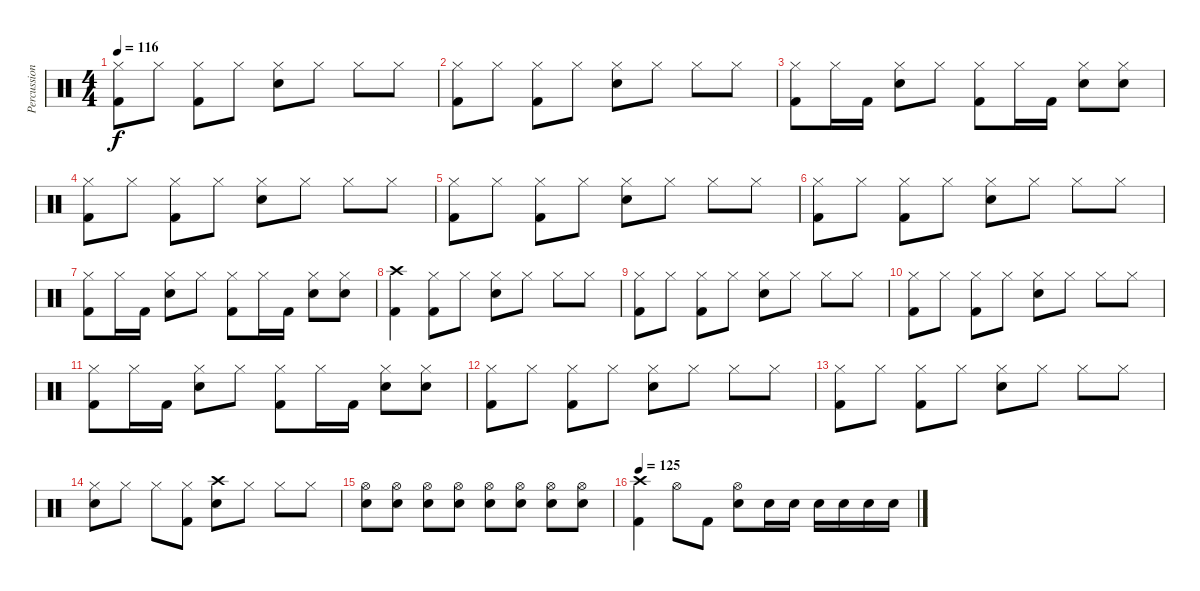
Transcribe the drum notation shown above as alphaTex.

\track ("Percussion" "Percussion") {instrument percussion}
\staff {score}
\articulation defaults
\ts (4 4)
\tempo 116
\clef neutral
\ks c
("Kick (hit) 2" "Hi-Hat (closed)").8{dy f} "Hi-Hat (closed)".8 ("Kick (hit) 2" "Hi-Hat (closed)").8 "Hi-Hat (closed)".8 ("Electric Snare (hit)" "Hi-Hat (closed)").8 "Hi-Hat (closed)".8 "Hi-Hat (closed)".8 "Hi-Hat (closed)".8 |
("Kick (hit) 2" "Hi-Hat (closed)").8 "Hi-Hat (closed)".8 ("Kick (hit) 2" "Hi-Hat (closed)").8 "Hi-Hat (closed)".8 ("Electric Snare (hit)" "Hi-Hat (closed)").8 "Hi-Hat (closed)".8 "Hi-Hat (closed)".8 "Hi-Hat (closed)".8 |
("Kick (hit) 2" "Hi-Hat (closed)").8 "Hi-Hat (closed)".16 "Kick (hit) 2".16 ("Electric Snare (hit)" "Hi-Hat (closed)").8 "Hi-Hat (closed)".8 ("Kick (hit) 2" "Hi-Hat (closed)").8 "Hi-Hat (closed)".16 "Kick (hit) 2".16 ("Electric Snare (hit)" "Hi-Hat (closed)").8 ("Electric Snare (hit)" "Hi-Hat (closed)").8 |
("Kick (hit) 2" "Hi-Hat (closed)").8 "Hi-Hat (closed)".8 ("Kick (hit) 2" "Hi-Hat (closed)").8 "Hi-Hat (closed)".8 ("Electric Snare (hit)" "Hi-Hat (closed)").8 "Hi-Hat (closed)".8 "Hi-Hat (closed)".8 "Hi-Hat (closed)".8 |
("Kick (hit) 2" "Hi-Hat (closed)").8 "Hi-Hat (closed)".8 ("Kick (hit) 2" "Hi-Hat (closed)").8 "Hi-Hat (closed)".8 ("Electric Snare (hit)" "Hi-Hat (closed)").8 "Hi-Hat (closed)".8 "Hi-Hat (closed)".8 "Hi-Hat (closed)".8 |
("Kick (hit) 2" "Hi-Hat (closed)").8 "Hi-Hat (closed)".8 ("Kick (hit) 2" "Hi-Hat (closed)").8 "Hi-Hat (closed)".8 ("Electric Snare (hit)" "Hi-Hat (closed)").8 "Hi-Hat (closed)".8 "Hi-Hat (closed)".8 "Hi-Hat (closed)".8 |
("Kick (hit) 2" "Hi-Hat (closed)").8 "Hi-Hat (closed)".16 "Kick (hit) 2".16 ("Electric Snare (hit)" "Hi-Hat (closed)").8 "Hi-Hat (closed)".8 ("Kick (hit) 2" "Hi-Hat (closed)").8 "Hi-Hat (closed)".16 "Kick (hit) 2".16 ("Electric Snare (hit)" "Hi-Hat (closed)").8 ("Electric Snare (hit)" "Hi-Hat (closed)").8 |
("Kick (hit) 2" "Crash high (hit)").4 ("Kick (hit) 2" "Hi-Hat (closed)").8 "Hi-Hat (closed)".8 ("Electric Snare (hit)" "Hi-Hat (closed)").8 "Hi-Hat (closed)".8 "Hi-Hat (closed)".8 "Hi-Hat (closed)".8 |
("Kick (hit) 2" "Hi-Hat (closed)").8 "Hi-Hat (closed)".8 ("Kick (hit) 2" "Hi-Hat (closed)").8 "Hi-Hat (closed)".8 ("Electric Snare (hit)" "Hi-Hat (closed)").8 "Hi-Hat (closed)".8 "Hi-Hat (closed)".8 "Hi-Hat (closed)".8 |
("Kick (hit) 2" "Hi-Hat (closed)").8 "Hi-Hat (closed)".8 ("Kick (hit) 2" "Hi-Hat (closed)").8 "Hi-Hat (closed)".8 ("Electric Snare (hit)" "Hi-Hat (closed)").8 "Hi-Hat (closed)".8 "Hi-Hat (closed)".8 "Hi-Hat (closed)".8 |
("Kick (hit) 2" "Hi-Hat (closed)").8 "Hi-Hat (closed)".16 "Kick (hit) 2".16 ("Electric Snare (hit)" "Hi-Hat (closed)").8 "Hi-Hat (closed)".8 ("Kick (hit) 2" "Hi-Hat (closed)").8 "Hi-Hat (closed)".16 "Kick (hit) 2".16 ("Electric Snare (hit)" "Hi-Hat (closed)").8 ("Electric Snare (hit)" "Hi-Hat (closed)").8 |
("Kick (hit) 2" "Hi-Hat (closed)").8 "Hi-Hat (closed)".8 ("Kick (hit) 2" "Hi-Hat (closed)").8 "Hi-Hat (closed)".8 ("Electric Snare (hit)" "Hi-Hat (closed)").8 "Hi-Hat (closed)".8 "Hi-Hat (closed)".8 "Hi-Hat (closed)".8 |
("Kick (hit) 2" "Hi-Hat (closed)").8 "Hi-Hat (closed)".8 ("Kick (hit) 2" "Hi-Hat (closed)").8 "Hi-Hat (closed)".8 ("Electric Snare (hit)" "Hi-Hat (closed)").8 "Hi-Hat (closed)".8 "Hi-Hat (closed)".8 "Hi-Hat (closed)".8 |
("Electric Snare (hit)" "Hi-Hat (closed)").8 "Hi-Hat (closed)".8 "Hi-Hat (closed)".8 ("Kick (hit) 2" "Hi-Hat (closed)").8 ("Electric Snare (hit)" "Crash high (hit)").8 "Hi-Hat (closed)".8 "Hi-Hat (closed)".8 "Hi-Hat (closed)".8 |
("Electric Snare (hit)" "Hi-Hat (open)").8 ("Electric Snare (hit)" "Hi-Hat (open)").8 ("Electric Snare (hit)" "Hi-Hat (open)").8 ("Electric Snare (hit)" "Hi-Hat (open)").8 ("Electric Snare (hit)" "Hi-Hat (open)").8 ("Electric Snare (hit)" "Hi-Hat (open)").8 ("Electric Snare (hit)" "Hi-Hat (open)").8 ("Electric Snare (hit)" "Hi-Hat (open)").8 |
\tempo 125
("Kick (hit) 2" "Crash high (hit)").4 "Hi-Hat (open)".8 "Kick (hit) 2".8 ("Electric Snare (hit)" "Hi-Hat (open)").8 "Electric Snare (hit)".16 "Electric Snare (hit)".16 "Electric Snare (hit)".16 "Electric Snare (hit)".16 "Electric Snare (hit)".16 "Electric Snare (hit)".16
